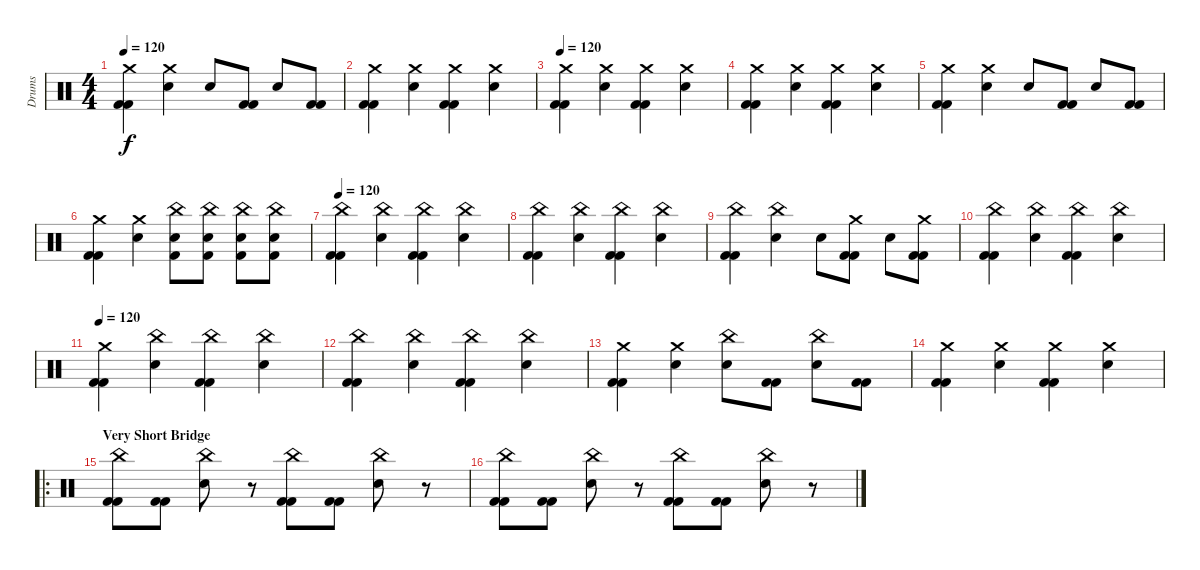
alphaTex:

\track ("Drums" "Drums") {instrument percussion}
\staff {score}
\articulation defaults
\ts (4 4)
\tempo 120
\clef neutral
\ks c
("Crash medium (hit)" "Kick (hit) 2" "Kick (hit) 2").4{dy f} ("Electric Snare (hit)" "Crash medium (hit)").4 "Electric Snare (hit)".8 ("Kick (hit) 2" "Kick (hit) 2").8 "Electric Snare (hit)".8 ("Kick (hit) 2" "Kick (hit) 2").8 |
("Crash medium (hit)" "Kick (hit) 2" "Kick (hit) 2").4 ("Electric Snare (hit)" "Crash medium (hit)").4 ("Crash medium (hit)" "Kick (hit) 2" "Kick (hit) 2").4 ("Electric Snare (hit)" "Crash medium (hit)").4 |
\tempo 120
("Crash medium (hit)" "Kick (hit) 2" "Kick (hit) 2").4 ("Electric Snare (hit)" "Crash medium (hit)").4 ("Crash medium (hit)" "Kick (hit) 2" "Kick (hit) 2").4 ("Electric Snare (hit)" "Crash medium (hit)").4 |
("Crash medium (hit)" "Kick (hit) 2" "Kick (hit) 2").4 ("Electric Snare (hit)" "Crash medium (hit)").4 ("Crash medium (hit)" "Kick (hit) 2" "Kick (hit) 2").4 ("Electric Snare (hit)" "Crash medium (hit)").4 |
("Crash medium (hit)" "Kick (hit) 2" "Kick (hit) 2").4 ("Electric Snare (hit)" "Crash medium (hit)").4 "Electric Snare (hit)".8 ("Kick (hit) 2" "Kick (hit) 2").8 "Electric Snare (hit)".8 ("Kick (hit) 2" "Kick (hit) 2").8 |
("Crash medium (hit)" "Kick (hit) 2" "Kick (hit) 2").4 ("Electric Snare (hit)" "Crash medium (hit)").4 ("Electric Snare (hit)" "China (hit)" "Kick (hit) 2").8 ("Electric Snare (hit)" "China (hit)" "Kick (hit) 2").8 ("Electric Snare (hit)" "China (hit)" "Kick (hit) 2").8 ("Kick (hit) 2" "China (hit)" "Electric Snare (hit)").8 |
\tempo 120
("China (hit)" "Kick (hit) 2" "Kick (hit) 2").4 ("Electric Snare (hit)" "China (hit)").4 ("China (hit)" "Kick (hit) 2" "Kick (hit) 2").4 ("Electric Snare (hit)" "China (hit)").4 |
("China (hit)" "Kick (hit) 2" "Kick (hit) 2").4 ("Electric Snare (hit)" "China (hit)").4 ("China (hit)" "Kick (hit) 2" "Kick (hit) 2").4 ("Electric Snare (hit)" "China (hit)").4 |
("China (hit)" "Kick (hit) 2" "Kick (hit) 2").4 ("Electric Snare (hit)" "China (hit)").4 "Electric Snare (hit)".8 ("Crash medium (hit)" "Kick (hit) 2" "Kick (hit) 2").8 "Electric Snare (hit)".8 ("Crash medium (hit)" "Kick (hit) 2" "Kick (hit) 2").8 |
("China (hit)" "Kick (hit) 2" "Kick (hit) 2").4 ("Electric Snare (hit)" "China (hit)").4 ("China (hit)" "Kick (hit) 2" "Kick (hit) 2").4 ("Electric Snare (hit)" "China (hit)").4 |
\tempo 120
("Crash medium (hit)" "Kick (hit) 2" "Kick (hit) 2").4 ("Electric Snare (hit)" "China (hit)").4 ("China (hit)" "Kick (hit) 2" "Kick (hit) 2").4 ("Electric Snare (hit)" "China (hit)").4 |
("China (hit)" "Kick (hit) 2" "Kick (hit) 2").4 ("Electric Snare (hit)" "China (hit)").4 ("China (hit)" "Kick (hit) 2" "Kick (hit) 2").4 ("Electric Snare (hit)" "China (hit)").4 |
("Crash medium (hit)" "Kick (hit) 2" "Kick (hit) 2").4 ("Electric Snare (hit)" "Crash medium (hit)").4 ("China (hit)" "Electric Snare (hit)").8 ("Kick (hit) 2" "Kick (hit) 2").8 ("Electric Snare (hit)" "China (hit)").8 ("Kick (hit) 2" "Kick (hit) 2").8 |
("Crash medium (hit)" "Kick (hit) 2" "Kick (hit) 2").4 ("Electric Snare (hit)" "Crash medium (hit)").4 ("Crash medium (hit)" "Kick (hit) 2" "Kick (hit) 2").4 ("Electric Snare (hit)" "Crash medium (hit)").4 |
\ro
\section ("" "Very Short Bridge ")
("China (hit)" "Kick (hit) 2" "Kick (hit) 2").8 ("Kick (hit) 2" "Kick (hit) 2").8 ("Electric Snare (hit)" "China (hit)").8 r.8 ("China (hit)" "Kick (hit) 2" "Kick (hit) 2").8 ("Kick (hit) 2" "Kick (hit) 2").8 ("Electric Snare (hit)" "China (hit)").8 r.8 |
("China (hit)" "Kick (hit) 2" "Kick (hit) 2").8 ("Kick (hit) 2" "Kick (hit) 2").8 ("Electric Snare (hit)" "China (hit)").8 r.8 ("China (hit)" "Kick (hit) 2" "Kick (hit) 2").8 ("Kick (hit) 2" "Kick (hit) 2").8 ("Electric Snare (hit)" "China (hit)").8 r.8
